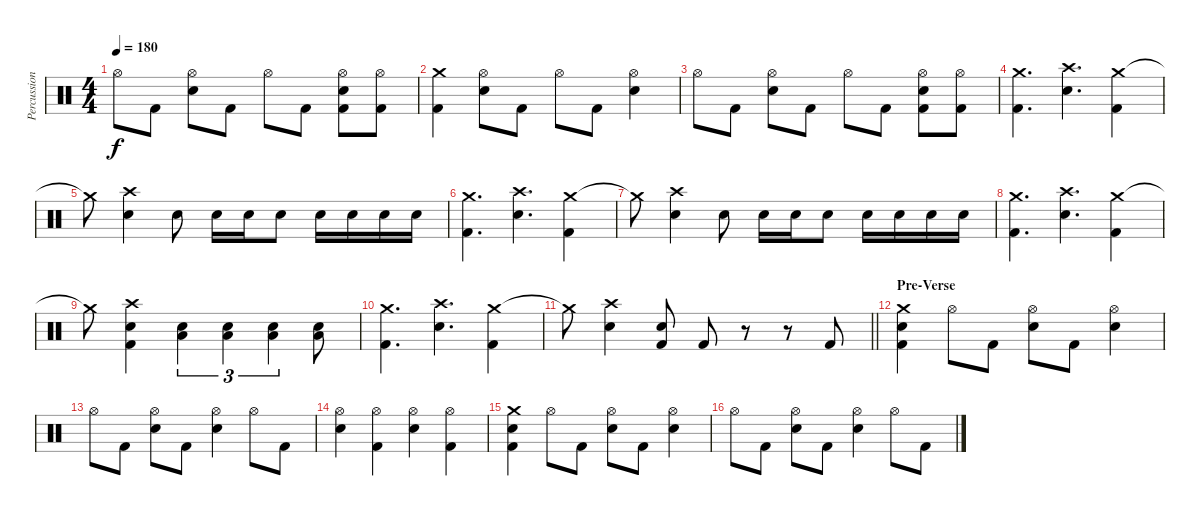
\track ("Percussion" "Percussion") {instrument percussion}
\staff {score}
\articulation defaults
\ts (4 4)
\tempo 180
\clef neutral
\ks c "Hi-Hat (open)".8{dy f} "Kick (hit) 2".8
("Hi-Hat (open)" "Snare (hit) 2").8 "Kick (hit) 2".8 "Hi-Hat (open)".8 "Kick (hit) 2".8 ("Hi-Hat (open)" "Snare (hit) 2" "Kick (hit) 2").8 ("Hi-Hat (open)" "Kick (hit) 2").8 |
("Crash medium (hit)" "Kick (hit) 2").4 ("Hi-Hat (open)" "Snare (hit) 2").8 "Kick (hit) 2".8 "Hi-Hat (open)".8 "Kick (hit) 2".8 ("Hi-Hat (open)" "Snare (hit) 2").4 |
"Hi-Hat (open)".8 "Kick (hit) 2".8 ("Hi-Hat (open)" "Snare (hit) 2").8 "Kick (hit) 2".8 "Hi-Hat (open)".8 "Kick (hit) 2".8 ("Hi-Hat (open)" "Snare (hit) 2" "Kick (hit) 2").8 ("Hi-Hat (open)" "Kick (hit) 2").8 |
("Crash medium (hit)" "Kick (hit) 2").4{d} ("Crash high (hit)" "Snare (hit) 2").4{d} ("Crash medium (hit)" "Kick (hit) 2").4 |
"Crash medium (hit)"{t}.8 ("Crash high (hit)" "Snare (hit) 2").4 "Snare (hit) 2".8 "Snare (hit) 2".16 "Snare (hit) 2".16 "Snare (hit) 2".8 "Snare (hit) 2".16 "Snare (hit) 2".16 "Snare (hit) 2".16 "Snare (hit) 2".16 |
("Crash medium (hit)" "Kick (hit) 2").4{d} ("Crash high (hit)" "Snare (hit) 2").4{d} ("Crash medium (hit)" "Kick (hit) 2").4 |
"Crash medium (hit)"{t}.8 ("Crash high (hit)" "Snare (hit) 2").4 "Snare (hit) 2".8 "Snare (hit) 2".16 "Snare (hit) 2".16 "Snare (hit) 2".8 "Snare (hit) 2".16 "Snare (hit) 2".16 "Snare (hit) 2".16 "Snare (hit) 2".16 |
("Crash medium (hit)" "Kick (hit) 2").4{d} ("Crash high (hit)" "Snare (hit) 2").4{d} ("Crash medium (hit)" "Kick (hit) 2").4 |
"Crash medium (hit)"{t}.8 ("Crash high (hit)" "Snare (hit) 2" "Kick (hit) 2").4 ("Snare (hit) 2" "Low Floor Tom (hit)").4{tu (3 2)} ("Snare (hit) 2" "Low Floor Tom (hit)").4{tu (3 2)} ("Snare (hit) 2" "Low Floor Tom (hit)").4{tu (3 2)} ("Snare (hit) 2" "Low Floor Tom (hit)").8 |
("Crash medium (hit)" "Kick (hit) 2").4{d} ("Crash high (hit)" "Snare (hit) 2").4{d} ("Crash medium (hit)" "Kick (hit) 2").4 |
\barLineRight lightlight "Crash medium (hit)"{t}.8
("Crash high (hit)" "Snare (hit) 2").4 ("Snare (hit) 2" "Kick (hit) 2").8 "Kick (hit) 2".8 r.8 r.8 "Kick (hit) 2".8 |
\section ("" "Pre-Verse")
("Crash medium (hit)" "Snare (hit) 2" "Kick (hit) 2").4 "Hi-Hat (open)".8 "Kick (hit) 2".8 ("Hi-Hat (open)" "Snare (hit) 2").8 "Kick (hit) 2".8 ("Hi-Hat (open)" "Snare (hit) 2").4 |
"Hi-Hat (open)".8 "Kick (hit) 2".8 ("Hi-Hat (open)" "Snare (hit) 2").8 "Kick (hit) 2".8 ("Hi-Hat (open)" "Snare (hit) 2").4 "Hi-Hat (open)".8 "Kick (hit) 2".8 |
("Hi-Hat (open)" "Snare (hit) 2").4 ("Hi-Hat (open)" "Kick (hit) 2").4 ("Hi-Hat (open)" "Snare (hit) 2").4 ("Hi-Hat (open)" "Kick (hit) 2").4 |
("Crash medium (hit)" "Snare (hit) 2" "Kick (hit) 2").4 "Hi-Hat (open)".8 "Kick (hit) 2".8 ("Hi-Hat (open)" "Snare (hit) 2").8 "Kick (hit) 2".8 ("Hi-Hat (open)" "Snare (hit) 2").4 |
"Hi-Hat (open)".8 "Kick (hit) 2".8 ("Hi-Hat (open)" "Snare (hit) 2").8 "Kick (hit) 2".8 ("Hi-Hat (open)" "Snare (hit) 2").4 "Hi-Hat (open)".8 "Kick (hit) 2".8
